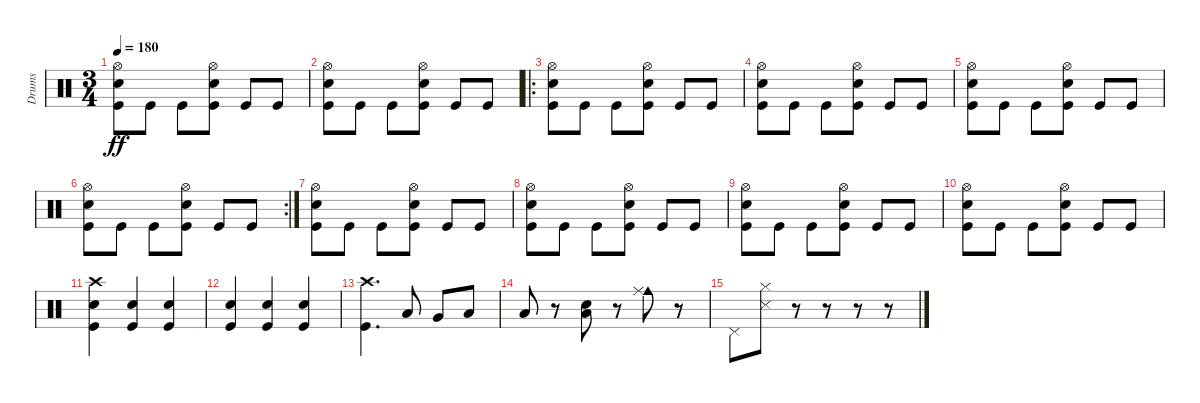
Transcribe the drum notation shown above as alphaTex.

\track ("Drums" "Drums") {instrument percussion}
\staff {score}
\articulation defaults
\ts (3 4)
\tempo 180
\clef neutral
\ks c
("Hi-Hat (open)" "Snare (hit) 2" "Kick (hit)").8{dy ff} "Kick (hit)".8 "Kick (hit)".8 ("Hi-Hat (open)" "Snare (hit) 2" "Kick (hit)").8 "Kick (hit)".8 "Kick (hit)".8 |
("Hi-Hat (open)" "Snare (hit) 2" "Kick (hit)").8 "Kick (hit)".8 "Kick (hit)".8 ("Hi-Hat (open)" "Snare (hit) 2" "Kick (hit)").8 "Kick (hit)".8 "Kick (hit)".8 |
\ro
("Hi-Hat (open)" "Snare (hit) 2" "Kick (hit)").8 "Kick (hit)".8 "Kick (hit)".8 ("Hi-Hat (open)" "Snare (hit) 2" "Kick (hit)").8 "Kick (hit)".8 "Kick (hit)".8 |
("Hi-Hat (open)" "Snare (hit) 2" "Kick (hit)").8 "Kick (hit)".8 "Kick (hit)".8 ("Hi-Hat (open)" "Snare (hit) 2" "Kick (hit)").8 "Kick (hit)".8 "Kick (hit)".8 |
("Hi-Hat (open)" "Snare (hit) 2" "Kick (hit)").8 "Kick (hit)".8 "Kick (hit)".8 ("Hi-Hat (open)" "Snare (hit) 2" "Kick (hit)").8 "Kick (hit)".8 "Kick (hit)".8 |
\rc 2
("Hi-Hat (open)" "Snare (hit) 2" "Kick (hit)").8 "Kick (hit)".8 "Kick (hit)".8 ("Hi-Hat (open)" "Snare (hit) 2" "Kick (hit)").8 "Kick (hit)".8 "Kick (hit)".8 |
("Hi-Hat (open)" "Snare (hit) 2" "Kick (hit)").8 "Kick (hit)".8 "Kick (hit)".8 ("Hi-Hat (open)" "Snare (hit) 2" "Kick (hit)").8 "Kick (hit)".8 "Kick (hit)".8 |
("Hi-Hat (open)" "Snare (hit) 2" "Kick (hit)").8 "Kick (hit)".8 "Kick (hit)".8 ("Hi-Hat (open)" "Snare (hit) 2" "Kick (hit)").8 "Kick (hit)".8 "Kick (hit)".8 |
("Hi-Hat (open)" "Snare (hit) 2" "Kick (hit)").8 "Kick (hit)".8 "Kick (hit)".8 ("Hi-Hat (open)" "Snare (hit) 2" "Kick (hit)").8 "Kick (hit)".8 "Kick (hit)".8 |
("Hi-Hat (open)" "Snare (hit) 2" "Kick (hit)").8 "Kick (hit)".8 "Kick (hit)".8 ("Hi-Hat (open)" "Snare (hit) 2" "Kick (hit)").8 "Kick (hit)".8 "Kick (hit)".8 |
("Crash high (hit)" "Snare (hit) 2" "Kick (hit)").4 ("Snare (hit) 2" "Kick (hit)").4 ("Snare (hit) 2" "Kick (hit)").4 |
("Snare (hit) 2" "Kick (hit)").4 ("Snare (hit) 2" "Kick (hit)").4 ("Snare (hit) 2" "Kick (hit)").4 |
("Crash high (hit)" "Kick (hit)").4{d} "Low Floor Tom (hit)".8 "Very Low Tom (hit)".8 "Low Floor Tom (hit)".8 |
"Low Floor Tom (hit)".8 r.8 ("Snare (hit) 2" "Low Floor Tom (hit)").8 r.8 ("Cowbell medium (hit)" "Ride (middle)").8 r.8 |
"Pedal Hi-Hat (hit)".8 ("Hi-Hat (closed)" "Snare (side stick) 3").8 r.8 r.8 r.8 r.8
